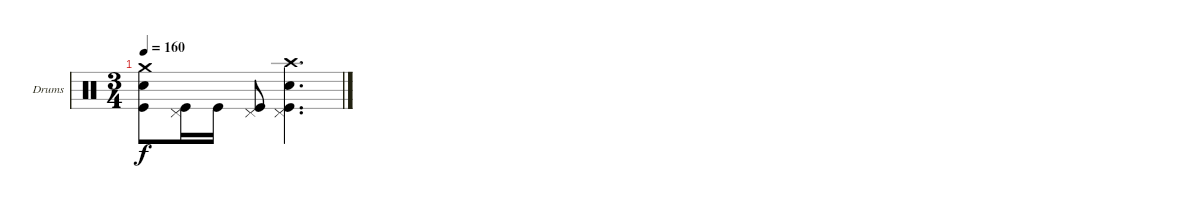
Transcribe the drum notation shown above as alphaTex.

\bracketExtendMode groupsimilarinstruments
\firstSystemTrackNameOrientation horizontal
\otherSystemsTrackNameOrientation horizontal
\track ("Drumkit" "Drums") {instrument percussion}
\staff {score}
\articulation defaults
\ts (3 4)
\tempo 160
\clef neutral
\ks c
("Crash medium (hit)" "Snare (hit) 2" "Kick (hit)").8{dy f} ("Pedal Hi-Hat (hit)" "Kick (hit)").16 "Kick (hit)".16 ("Pedal Hi-Hat (hit)" "Kick (hit)").8 ("Crash high (hit)" "Pedal Hi-Hat (hit)" "Kick (hit)" "Snare (hit) 2").4{d}
